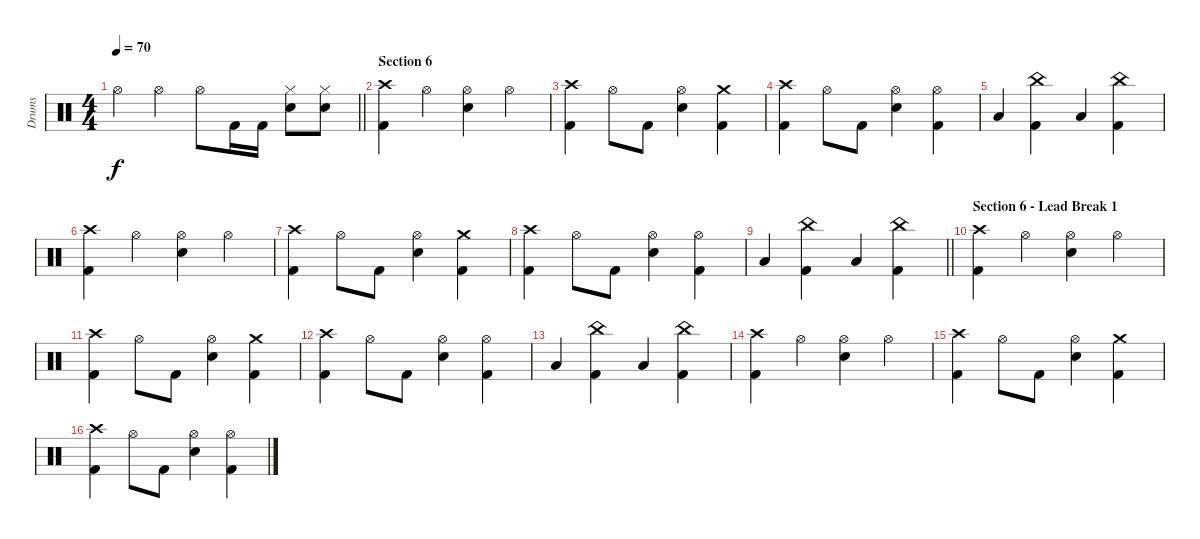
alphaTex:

\track ("Drums" "Drums") {instrument percussion}
\staff {score}
\articulation defaults
\ts (4 4)
\tempo 70
\clef neutral
\barLineRight lightlight
\ks c "Hi-Hat (open)".4{dy f} "Hi-Hat (open)".4 "Hi-Hat (open)".8 "Kick (hit) 2".16 "Kick (hit) 2".16
("Hi-Hat (closed)" "Electric Snare (hit)").8 ("Hi-Hat (closed)" "Electric Snare (hit)").8 |
\section ("" "Section 6")
("Crash high (hit)" "Kick (hit) 2").4 "Hi-Hat (open)".4 ("Hi-Hat (open)" "Electric Snare (hit)").4 "Hi-Hat (open)".4 |
("Crash high (hit)" "Kick (hit) 2").4 "Hi-Hat (open)".8 "Kick (hit) 2".8 ("Hi-Hat (open)" "Electric Snare (hit)").4 ("Crash medium (hit)" "Kick (hit) 2").4 |
("Crash high (hit)" "Kick (hit) 2").4 "Hi-Hat (open)".8 "Kick (hit) 2".8 ("Hi-Hat (open)" "Electric Snare (hit)").4 ("Hi-Hat (open)" "Kick (hit) 2").4 |
"Low Floor Tom (hit)".4 ("China (hit)" "Kick (hit) 2").4 "Low Floor Tom (hit)".4 ("China (hit)" "Kick (hit) 2").4 |
("Crash high (hit)" "Kick (hit) 2").4 "Hi-Hat (open)".4 ("Hi-Hat (open)" "Electric Snare (hit)").4 "Hi-Hat (open)".4 |
("Crash high (hit)" "Kick (hit) 2").4 "Hi-Hat (open)".8 "Kick (hit) 2".8 ("Hi-Hat (open)" "Electric Snare (hit)").4 ("Crash medium (hit)" "Kick (hit) 2").4 |
("Crash high (hit)" "Kick (hit) 2").4 "Hi-Hat (open)".8 "Kick (hit) 2".8 ("Hi-Hat (open)" "Electric Snare (hit)").4 ("Hi-Hat (open)" "Kick (hit) 2").4 |
\barLineRight lightlight "Low Floor Tom (hit)".4
("China (hit)" "Kick (hit) 2").4 "Low Floor Tom (hit)".4 ("China (hit)" "Kick (hit) 2").4 |
\section ("" "Section 6 - Lead Break 1")
("Crash high (hit)" "Kick (hit) 2").4 "Hi-Hat (open)".4 ("Hi-Hat (open)" "Electric Snare (hit)").4 "Hi-Hat (open)".4 |
("Crash high (hit)" "Kick (hit) 2").4 "Hi-Hat (open)".8 "Kick (hit) 2".8 ("Hi-Hat (open)" "Electric Snare (hit)").4 ("Crash medium (hit)" "Kick (hit) 2").4 |
("Crash high (hit)" "Kick (hit) 2").4 "Hi-Hat (open)".8 "Kick (hit) 2".8 ("Hi-Hat (open)" "Electric Snare (hit)").4 ("Hi-Hat (open)" "Kick (hit) 2").4 |
"Low Floor Tom (hit)".4 ("China (hit)" "Kick (hit) 2").4 "Low Floor Tom (hit)".4 ("China (hit)" "Kick (hit) 2").4 |
("Crash high (hit)" "Kick (hit) 2").4 "Hi-Hat (open)".4 ("Hi-Hat (open)" "Electric Snare (hit)").4 "Hi-Hat (open)".4 |
("Crash high (hit)" "Kick (hit) 2").4 "Hi-Hat (open)".8 "Kick (hit) 2".8 ("Hi-Hat (open)" "Electric Snare (hit)").4 ("Crash medium (hit)" "Kick (hit) 2").4 |
("Crash high (hit)" "Kick (hit) 2").4 "Hi-Hat (open)".8 "Kick (hit) 2".8 ("Hi-Hat (open)" "Electric Snare (hit)").4 ("Hi-Hat (open)" "Kick (hit) 2").4
